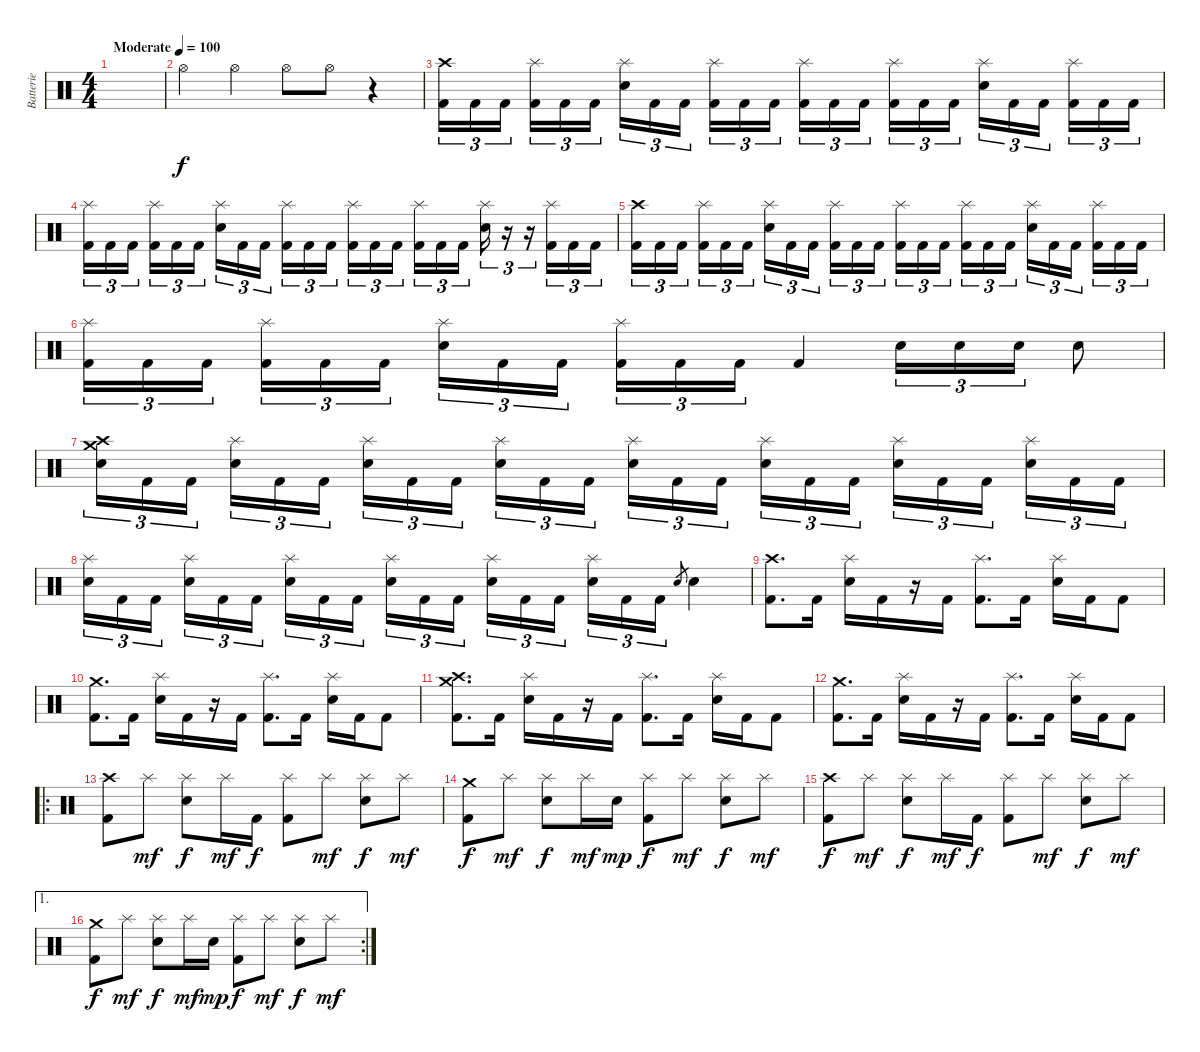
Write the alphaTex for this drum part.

\track ("Batterie" "Batterie") {instrument percussion}
\staff {score}
\articulation defaults
\ts (4 4)
\tempo (100 "Moderate")
\clef neutral
\ks c
|
"Hi-Hat (open)".4 "Hi-Hat (open)".4 "Hi-Hat (open)".8 "Hi-Hat (open)".8 r.4 |
("Crash high (hit)" "Kick (hit) 2").16{tu (3 2)} "Kick (hit) 2".16{tu (3 2)} "Kick (hit) 2".16{tu (3 2) beam splitsecondary} ("Splash (hit)" "Kick (hit) 2").16{tu (3 2)} "Kick (hit) 2".16{tu (3 2)} "Kick (hit) 2".16{tu (3 2)} ("Splash (hit)" "Electric Snare (hit)").16{tu (3 2)} "Kick (hit) 2".16{tu (3 2)} "Kick (hit) 2".16{tu (3 2) beam splitsecondary} ("Splash (hit)" "Kick (hit) 2").16{tu (3 2)} "Kick (hit) 2".16{tu (3 2)} "Kick (hit) 2".16{tu (3 2)} ("Splash (hit)" "Kick (hit) 2").16{tu (3 2)} "Kick (hit) 2".16{tu (3 2)} "Kick (hit) 2".16{tu (3 2) beam splitsecondary} ("Splash (hit)" "Kick (hit) 2").16{tu (3 2)} "Kick (hit) 2".16{tu (3 2)} "Kick (hit) 2".16{tu (3 2)} ("Splash (hit)" "Electric Snare (hit)").16{tu (3 2)} "Kick (hit) 2".16{tu (3 2)} "Kick (hit) 2".16{tu (3 2) beam splitsecondary} ("Splash (hit)" "Kick (hit) 2").16{tu (3 2)} "Kick (hit) 2".16{tu (3 2)} "Kick (hit) 2".16{tu (3 2)} |
("Splash (hit)" "Kick (hit) 2").16{tu (3 2)} "Kick (hit) 2".16{tu (3 2)} "Kick (hit) 2".16{tu (3 2) beam splitsecondary} ("Splash (hit)" "Kick (hit) 2").16{tu (3 2)} "Kick (hit) 2".16{tu (3 2)} "Kick (hit) 2".16{tu (3 2)} ("Splash (hit)" "Electric Snare (hit)").16{tu (3 2)} "Kick (hit) 2".16{tu (3 2)} "Kick (hit) 2".16{tu (3 2) beam splitsecondary} ("Splash (hit)" "Kick (hit) 2").16{tu (3 2)} "Kick (hit) 2".16{tu (3 2)} "Kick (hit) 2".16{tu (3 2)} ("Splash (hit)" "Kick (hit) 2").16{tu (3 2)} "Kick (hit) 2".16{tu (3 2)} "Kick (hit) 2".16{tu (3 2) beam splitsecondary} ("Splash (hit)" "Kick (hit) 2").16{tu (3 2)} "Kick (hit) 2".16{tu (3 2)} "Kick (hit) 2".16{tu (3 2)} ("Splash (hit)" "Electric Snare (hit)").16{tu (3 2)} r.16{tu (3 2)} r.16{tu (3 2)} ("Splash (hit)" "Kick (hit) 2").16{tu (3 2)} "Kick (hit) 2".16{tu (3 2)} "Kick (hit) 2".16{tu (3 2)} |
("Crash high (hit)" "Kick (hit) 2").16{tu (3 2)} "Kick (hit) 2".16{tu (3 2)} "Kick (hit) 2".16{tu (3 2) beam splitsecondary} ("Splash (hit)" "Kick (hit) 2").16{tu (3 2)} "Kick (hit) 2".16{tu (3 2)} "Kick (hit) 2".16{tu (3 2)} ("Splash (hit)" "Electric Snare (hit)").16{tu (3 2)} "Kick (hit) 2".16{tu (3 2)} "Kick (hit) 2".16{tu (3 2) beam splitsecondary} ("Splash (hit)" "Kick (hit) 2").16{tu (3 2)} "Kick (hit) 2".16{tu (3 2)} "Kick (hit) 2".16{tu (3 2)} ("Splash (hit)" "Kick (hit) 2").16{tu (3 2)} "Kick (hit) 2".16{tu (3 2)} "Kick (hit) 2".16{tu (3 2) beam splitsecondary} ("Splash (hit)" "Kick (hit) 2").16{tu (3 2)} "Kick (hit) 2".16{tu (3 2)} "Kick (hit) 2".16{tu (3 2)} ("Splash (hit)" "Electric Snare (hit)").16{tu (3 2)} "Kick (hit) 2".16{tu (3 2)} "Kick (hit) 2".16{tu (3 2) beam splitsecondary} ("Splash (hit)" "Kick (hit) 2").16{tu (3 2)} "Kick (hit) 2".16{tu (3 2)} "Kick (hit) 2".16{tu (3 2)} |
("Splash (hit)" "Kick (hit) 2").16{tu (3 2)} "Kick (hit) 2".16{tu (3 2)} "Kick (hit) 2".16{tu (3 2) beam splitsecondary} ("Splash (hit)" "Kick (hit) 2").16{tu (3 2)} "Kick (hit) 2".16{tu (3 2)} "Kick (hit) 2".16{tu (3 2)} ("Splash (hit)" "Electric Snare (hit)").16{tu (3 2)} "Kick (hit) 2".16{tu (3 2)} "Kick (hit) 2".16{tu (3 2) beam splitsecondary} ("Splash (hit)" "Kick (hit) 2").16{tu (3 2)} "Kick (hit) 2".16{tu (3 2)} "Kick (hit) 2".16{tu (3 2)} "Kick (hit) 2".4 "Electric Snare (hit)".16{tu (3 2)} "Electric Snare (hit)".16{tu (3 2)} "Electric Snare (hit)".16{tu (3 2)} "Electric Snare (hit)".8 |
("Crash high (hit)" "Electric Snare (hit)" "Crash medium (hit)").16{tu (3 2)} "Kick (hit) 2".16{tu (3 2)} "Kick (hit) 2".16{tu (3 2) beam splitsecondary} ("Splash (hit)" "Electric Snare (hit)").16{tu (3 2)} "Kick (hit) 2".16{tu (3 2)} "Kick (hit) 2".16{tu (3 2)} ("Splash (hit)" "Electric Snare (hit)").16{tu (3 2)} "Kick (hit) 2".16{tu (3 2)} "Kick (hit) 2".16{tu (3 2) beam splitsecondary} ("Splash (hit)" "Electric Snare (hit)").16{tu (3 2)} "Kick (hit) 2".16{tu (3 2)} "Kick (hit) 2".16{tu (3 2)} ("Splash (hit)" "Electric Snare (hit)").16{tu (3 2)} "Kick (hit) 2".16{tu (3 2)} "Kick (hit) 2".16{tu (3 2) beam splitsecondary} ("Splash (hit)" "Electric Snare (hit)").16{tu (3 2)} "Kick (hit) 2".16{tu (3 2)} "Kick (hit) 2".16{tu (3 2)} ("Splash (hit)" "Electric Snare (hit)").16{tu (3 2)} "Kick (hit) 2".16{tu (3 2)} "Kick (hit) 2".16{tu (3 2) beam splitsecondary} ("Splash (hit)" "Electric Snare (hit)").16{tu (3 2)} "Kick (hit) 2".16{tu (3 2)} "Kick (hit) 2".16{tu (3 2)} |
("Splash (hit)" "Electric Snare (hit)").16{tu (3 2)} "Kick (hit) 2".16{tu (3 2)} "Kick (hit) 2".16{tu (3 2) beam splitsecondary} ("Splash (hit)" "Electric Snare (hit)").16{tu (3 2)} "Kick (hit) 2".16{tu (3 2)} "Kick (hit) 2".16{tu (3 2)} ("Splash (hit)" "Electric Snare (hit)").16{tu (3 2)} "Kick (hit) 2".16{tu (3 2)} "Kick (hit) 2".16{tu (3 2) beam splitsecondary} ("Splash (hit)" "Electric Snare (hit)").16{tu (3 2)} "Kick (hit) 2".16{tu (3 2)} "Kick (hit) 2".16{tu (3 2)} ("Splash (hit)" "Electric Snare (hit)").16{tu (3 2)} "Kick (hit) 2".16{tu (3 2)} "Kick (hit) 2".16{tu (3 2) beam splitsecondary} ("Splash (hit)" "Electric Snare (hit)").16{tu (3 2)} "Kick (hit) 2".16{tu (3 2)} "Kick (hit) 2".16{tu (3 2)} "Electric Snare (hit)".8{gr} "Electric Snare (hit)".4 |
("Crash high (hit)" "Kick (hit) 2").8{d} "Kick (hit) 2".16 ("Splash (hit)" "Electric Snare (hit)").16 "Kick (hit) 2".16 r.16 "Kick (hit) 2".16 ("Splash (hit)" "Kick (hit) 2").8{d} "Kick (hit) 2".16 ("Splash (hit)" "Electric Snare (hit)").16 "Kick (hit) 2".16 "Kick (hit) 2".8 |
("Crash medium (hit)" "Kick (hit) 2").8{d} "Kick (hit) 2".16 ("Splash (hit)" "Electric Snare (hit)").16 "Kick (hit) 2".16 r.16 "Kick (hit) 2".16 ("Splash (hit)" "Kick (hit) 2").8{d} "Kick (hit) 2".16 ("Splash (hit)" "Electric Snare (hit)").16 "Kick (hit) 2".16 "Kick (hit) 2".8 |
("Crash high (hit)" "Crash medium (hit)" "Kick (hit) 2").8{d} "Kick (hit) 2".16 ("Splash (hit)" "Electric Snare (hit)").16 "Kick (hit) 2".16 r.16 "Kick (hit) 2".16 ("Splash (hit)" "Kick (hit) 2").8{d} "Kick (hit) 2".16 ("Splash (hit)" "Electric Snare (hit)").16 "Kick (hit) 2".16 "Kick (hit) 2".8 |
("Crash medium (hit)" "Kick (hit) 2").8{d} "Kick (hit) 2".16 ("Splash (hit)" "Electric Snare (hit)").16 "Kick (hit) 2".16 r.16 "Kick (hit) 2".16 ("Splash (hit)" "Kick (hit) 2").8{d} "Kick (hit) 2".16 ("Splash (hit)" "Electric Snare (hit)").16 "Kick (hit) 2".16 "Kick (hit) 2".8 |
\ro
("Crash high (hit)" "Kick (hit) 2").8 "Splash (hit)".8{dy mf} ("Splash (hit)" "Electric Snare (hit)").8{dy f} "Splash (hit)".16{dy mf} "Kick (hit) 2".16{dy f} ("Splash (hit)" "Kick (hit) 2").8 "Splash (hit)".8{dy mf} ("Splash (hit)" "Electric Snare (hit)").8{dy f} "Splash (hit)".8{dy mf} |
("Crash medium (hit)" "Kick (hit) 2").8{dy f} "Splash (hit)".8{dy mf} ("Splash (hit)" "Electric Snare (hit)").8{dy f} "Splash (hit)".16{dy mf} "Electric Snare (hit)".16{dy mp} ("Splash (hit)" "Kick (hit) 2").8{dy f} "Splash (hit)".8{dy mf} ("Splash (hit)" "Electric Snare (hit)").8{dy f} "Splash (hit)".8{dy mf} |
("Crash high (hit)" "Kick (hit) 2").8{dy f} "Splash (hit)".8{dy mf} ("Splash (hit)" "Electric Snare (hit)").8{dy f} "Splash (hit)".16{dy mf} "Kick (hit) 2".16{dy f} ("Splash (hit)" "Kick (hit) 2").8 "Splash (hit)".8{dy mf} ("Splash (hit)" "Electric Snare (hit)").8{dy f} "Splash (hit)".8{dy mf} |
\ae 1
\rc 2
("Crash medium (hit)" "Kick (hit) 2").8{dy f} "Splash (hit)".8{dy mf} ("Splash (hit)" "Electric Snare (hit)").8{dy f} "Splash (hit)".16{dy mf} "Electric Snare (hit)".16{dy mp} ("Splash (hit)" "Kick (hit) 2").8{dy f} "Splash (hit)".8{dy mf} ("Splash (hit)" "Electric Snare (hit)").8{dy f} "Splash (hit)".8{dy mf}
